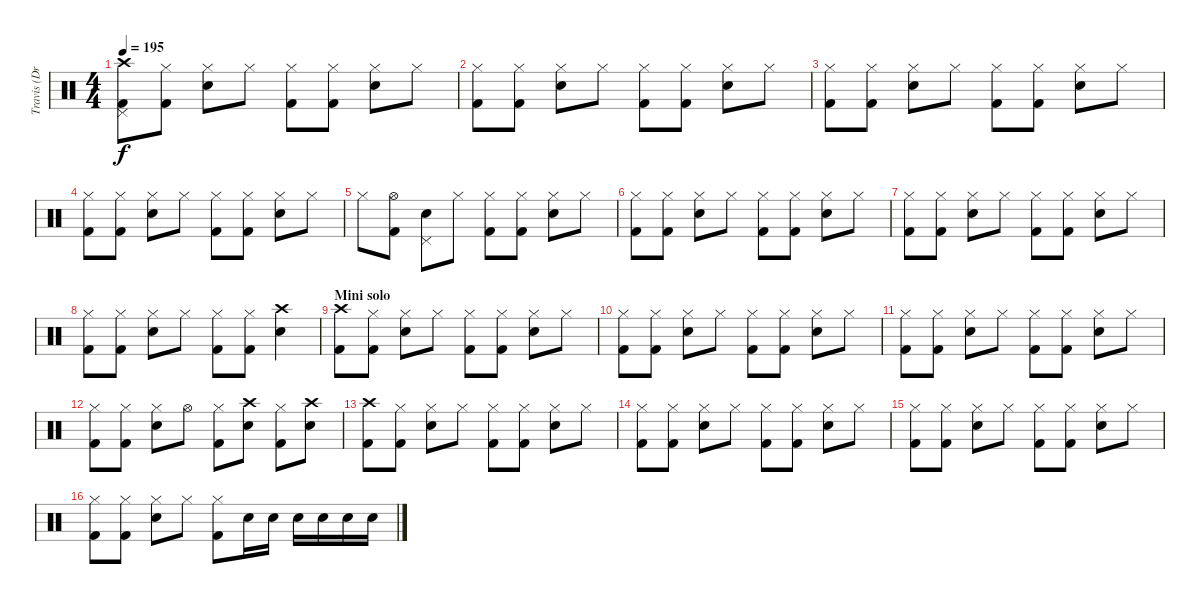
\track ("Travis (Drums)" "Travis (Dr") {instrument percussion}
\staff {score}
\articulation defaults
\ts (4 4)
\tempo 195
\clef neutral
\ks c
("Pedal Hi-Hat (hit)" "Crash high (hit)" "Kick (hit) 2").8{dy f} ("Hi-Hat (closed)" "Kick (hit) 2").8 ("Hi-Hat (closed)" "Electric Snare (hit)").8 "Hi-Hat (closed)".8 ("Hi-Hat (closed)" "Kick (hit) 2").8 ("Hi-Hat (closed)" "Kick (hit) 2").8 ("Hi-Hat (closed)" "Electric Snare (hit)").8 "Hi-Hat (closed)".8 |
("Hi-Hat (closed)" "Kick (hit) 2").8 ("Hi-Hat (closed)" "Kick (hit) 2").8 ("Hi-Hat (closed)" "Electric Snare (hit)").8 "Hi-Hat (closed)".8 ("Hi-Hat (closed)" "Kick (hit) 2").8 ("Hi-Hat (closed)" "Kick (hit) 2").8 ("Hi-Hat (closed)" "Electric Snare (hit)").8 "Hi-Hat (closed)".8 |
("Hi-Hat (closed)" "Kick (hit) 2").8 ("Hi-Hat (closed)" "Kick (hit) 2").8 ("Hi-Hat (closed)" "Electric Snare (hit)").8 "Hi-Hat (closed)".8 ("Hi-Hat (closed)" "Kick (hit) 2").8 ("Hi-Hat (closed)" "Kick (hit) 2").8 ("Hi-Hat (closed)" "Electric Snare (hit)").8 "Hi-Hat (closed)".8 |
("Hi-Hat (closed)" "Kick (hit) 2").8 ("Hi-Hat (closed)" "Kick (hit) 2").8 ("Hi-Hat (closed)" "Electric Snare (hit)").8 "Hi-Hat (closed)".8 ("Hi-Hat (closed)" "Kick (hit) 2").8 ("Hi-Hat (closed)" "Kick (hit) 2").8 ("Hi-Hat (closed)" "Electric Snare (hit)").8 "Hi-Hat (closed)".8 |
"Hi-Hat (closed)".8 ("Hi-Hat (open)" "Kick (hit) 2").8 ("Pedal Hi-Hat (hit)" "Electric Snare (hit)").8 "Hi-Hat (closed)".8 ("Hi-Hat (closed)" "Kick (hit) 2").8 ("Hi-Hat (closed)" "Kick (hit) 2").8 ("Hi-Hat (closed)" "Electric Snare (hit)").8 "Hi-Hat (closed)".8 |
("Hi-Hat (closed)" "Kick (hit) 2").8 ("Hi-Hat (closed)" "Kick (hit) 2").8 ("Hi-Hat (closed)" "Electric Snare (hit)").8 "Hi-Hat (closed)".8 ("Hi-Hat (closed)" "Kick (hit) 2").8 ("Hi-Hat (closed)" "Kick (hit) 2").8 ("Hi-Hat (closed)" "Electric Snare (hit)").8 "Hi-Hat (closed)".8 |
("Hi-Hat (closed)" "Kick (hit) 2").8 ("Hi-Hat (closed)" "Kick (hit) 2").8 ("Hi-Hat (closed)" "Electric Snare (hit)").8 "Hi-Hat (closed)".8 ("Hi-Hat (closed)" "Kick (hit) 2").8 ("Hi-Hat (closed)" "Kick (hit) 2").8 ("Hi-Hat (closed)" "Electric Snare (hit)").8 "Hi-Hat (closed)".8 |
("Hi-Hat (closed)" "Kick (hit) 2").8 ("Hi-Hat (closed)" "Kick (hit) 2").8 ("Hi-Hat (closed)" "Electric Snare (hit)").8 "Hi-Hat (closed)".8 ("Hi-Hat (closed)" "Kick (hit) 2").8 ("Hi-Hat (closed)" "Kick (hit) 2").8 ("Crash high (hit)" "Electric Snare (hit)").4 |
\section ("" "Mini solo")
("Crash high (hit)" "Kick (hit) 2").8 ("Hi-Hat (closed)" "Kick (hit) 2").8 ("Hi-Hat (closed)" "Electric Snare (hit)").8 "Hi-Hat (closed)".8 ("Hi-Hat (closed)" "Kick (hit) 2").8 ("Hi-Hat (closed)" "Kick (hit) 2").8 ("Hi-Hat (closed)" "Electric Snare (hit)").8 "Hi-Hat (closed)".8 |
("Hi-Hat (closed)" "Kick (hit) 2").8 ("Hi-Hat (closed)" "Kick (hit) 2").8 ("Hi-Hat (closed)" "Electric Snare (hit)").8 "Hi-Hat (closed)".8 ("Hi-Hat (closed)" "Kick (hit) 2").8 ("Hi-Hat (closed)" "Kick (hit) 2").8 ("Hi-Hat (closed)" "Electric Snare (hit)").8 "Hi-Hat (closed)".8 |
("Hi-Hat (closed)" "Kick (hit) 2").8 ("Hi-Hat (closed)" "Kick (hit) 2").8 ("Hi-Hat (closed)" "Electric Snare (hit)").8 "Hi-Hat (closed)".8 ("Hi-Hat (closed)" "Kick (hit) 2").8 ("Hi-Hat (closed)" "Kick (hit) 2").8 ("Hi-Hat (closed)" "Electric Snare (hit)").8 "Hi-Hat (closed)".8 |
("Hi-Hat (closed)" "Kick (hit) 2").8 ("Hi-Hat (closed)" "Kick (hit) 2").8 ("Hi-Hat (closed)" "Electric Snare (hit)").8 "Hi-Hat (open)".8 ("Hi-Hat (closed)" "Kick (hit) 2").8 ("Crash high (hit)" "Electric Snare (hit)").8 ("Hi-Hat (closed)" "Kick (hit) 2").8 ("Crash high (hit)" "Electric Snare (hit)").8 |
("Crash high (hit)" "Kick (hit) 2").8 ("Hi-Hat (closed)" "Kick (hit) 2").8 ("Hi-Hat (closed)" "Electric Snare (hit)").8 "Hi-Hat (closed)".8 ("Hi-Hat (closed)" "Kick (hit) 2").8 ("Hi-Hat (closed)" "Kick (hit) 2").8 ("Hi-Hat (closed)" "Electric Snare (hit)").8 "Hi-Hat (closed)".8 |
("Hi-Hat (closed)" "Kick (hit) 2").8 ("Hi-Hat (closed)" "Kick (hit) 2").8 ("Hi-Hat (closed)" "Electric Snare (hit)").8 "Hi-Hat (closed)".8 ("Hi-Hat (closed)" "Kick (hit) 2").8 ("Hi-Hat (closed)" "Kick (hit) 2").8 ("Hi-Hat (closed)" "Electric Snare (hit)").8 "Hi-Hat (closed)".8 |
("Hi-Hat (closed)" "Kick (hit) 2").8 ("Hi-Hat (closed)" "Kick (hit) 2").8 ("Hi-Hat (closed)" "Electric Snare (hit)").8 "Hi-Hat (closed)".8 ("Hi-Hat (closed)" "Kick (hit) 2").8 ("Hi-Hat (closed)" "Kick (hit) 2").8 ("Hi-Hat (closed)" "Electric Snare (hit)").8 "Hi-Hat (closed)".8 |
("Hi-Hat (closed)" "Kick (hit) 2").8 ("Hi-Hat (closed)" "Kick (hit) 2").8 ("Hi-Hat (closed)" "Electric Snare (hit)").8 "Hi-Hat (closed)".8 ("Hi-Hat (closed)" "Kick (hit) 2").8 "Electric Snare (hit)".16 "Electric Snare (hit)".16 "Electric Snare (hit)".16 "Electric Snare (hit)".16 "Electric Snare (hit)".16 "Electric Snare (hit)".16
